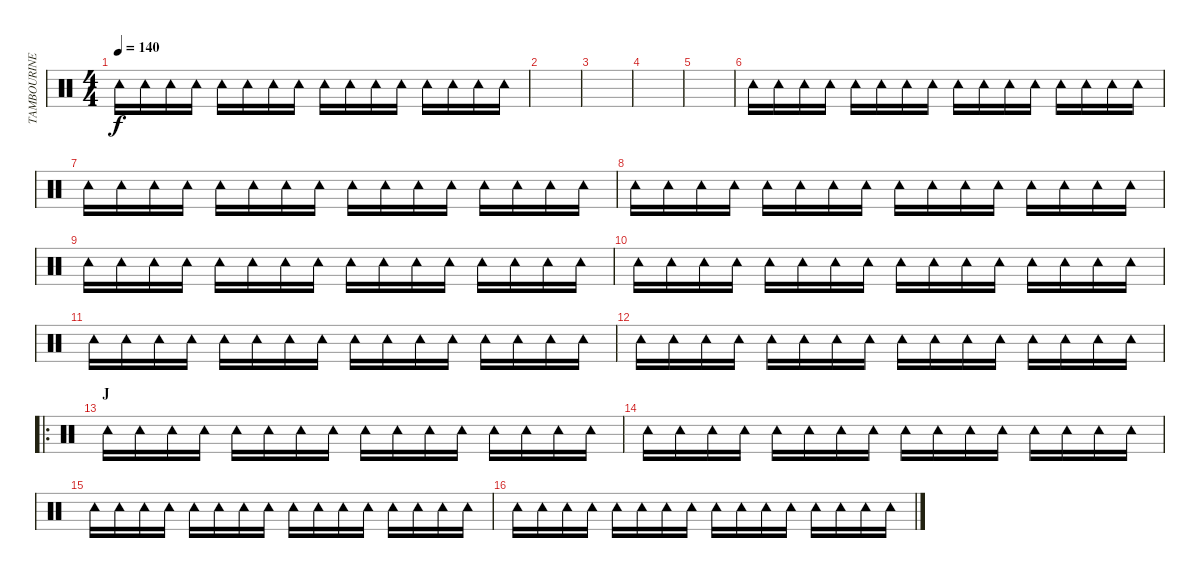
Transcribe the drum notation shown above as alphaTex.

\track ("TAMBOURINE" "TAMBOURINE") {instrument percussion}
\staff {score}
\articulation defaults
\ts (4 4)
\tempo 140
\clef neutral
\ks c "Tambourine (hit)".16{dy f} "Tambourine (hit)".16 "Tambourine (hit)".16 "Tambourine (hit)".16 "Tambourine (hit)".16 "Tambourine (hit)".16 "Tambourine (hit)".16 "Tambourine (hit)".16 "Tambourine (hit)".16 "Tambourine (hit)".16 "Tambourine (hit)".16 "Tambourine (hit)".16 "Tambourine (hit)".16 "Tambourine (hit)".16 "Tambourine (hit)".16 "Tambourine (hit)".16
|
|
|
|
|
"Tambourine (hit)".16 "Tambourine (hit)".16 "Tambourine (hit)".16 "Tambourine (hit)".16 "Tambourine (hit)".16 "Tambourine (hit)".16 "Tambourine (hit)".16 "Tambourine (hit)".16 "Tambourine (hit)".16 "Tambourine (hit)".16 "Tambourine (hit)".16 "Tambourine (hit)".16 "Tambourine (hit)".16 "Tambourine (hit)".16 "Tambourine (hit)".16 "Tambourine (hit)".16 |
"Tambourine (hit)".16 "Tambourine (hit)".16 "Tambourine (hit)".16 "Tambourine (hit)".16 "Tambourine (hit)".16 "Tambourine (hit)".16 "Tambourine (hit)".16 "Tambourine (hit)".16 "Tambourine (hit)".16 "Tambourine (hit)".16 "Tambourine (hit)".16 "Tambourine (hit)".16 "Tambourine (hit)".16 "Tambourine (hit)".16 "Tambourine (hit)".16 "Tambourine (hit)".16 |
"Tambourine (hit)".16 "Tambourine (hit)".16 "Tambourine (hit)".16 "Tambourine (hit)".16 "Tambourine (hit)".16 "Tambourine (hit)".16 "Tambourine (hit)".16 "Tambourine (hit)".16 "Tambourine (hit)".16 "Tambourine (hit)".16 "Tambourine (hit)".16 "Tambourine (hit)".16 "Tambourine (hit)".16 "Tambourine (hit)".16 "Tambourine (hit)".16 "Tambourine (hit)".16 |
"Tambourine (hit)".16 "Tambourine (hit)".16 "Tambourine (hit)".16 "Tambourine (hit)".16 "Tambourine (hit)".16 "Tambourine (hit)".16 "Tambourine (hit)".16 "Tambourine (hit)".16 "Tambourine (hit)".16 "Tambourine (hit)".16 "Tambourine (hit)".16 "Tambourine (hit)".16 "Tambourine (hit)".16 "Tambourine (hit)".16 "Tambourine (hit)".16 "Tambourine (hit)".16 |
"Tambourine (hit)".16 "Tambourine (hit)".16 "Tambourine (hit)".16 "Tambourine (hit)".16 "Tambourine (hit)".16 "Tambourine (hit)".16 "Tambourine (hit)".16 "Tambourine (hit)".16 "Tambourine (hit)".16 "Tambourine (hit)".16 "Tambourine (hit)".16 "Tambourine (hit)".16 "Tambourine (hit)".16 "Tambourine (hit)".16 "Tambourine (hit)".16 "Tambourine (hit)".16 |
"Tambourine (hit)".16 "Tambourine (hit)".16 "Tambourine (hit)".16 "Tambourine (hit)".16 "Tambourine (hit)".16 "Tambourine (hit)".16 "Tambourine (hit)".16 "Tambourine (hit)".16 "Tambourine (hit)".16 "Tambourine (hit)".16 "Tambourine (hit)".16 "Tambourine (hit)".16 "Tambourine (hit)".16 "Tambourine (hit)".16 "Tambourine (hit)".16 "Tambourine (hit)".16 |
"Tambourine (hit)".16 "Tambourine (hit)".16 "Tambourine (hit)".16 "Tambourine (hit)".16 "Tambourine (hit)".16 "Tambourine (hit)".16 "Tambourine (hit)".16 "Tambourine (hit)".16 "Tambourine (hit)".16 "Tambourine (hit)".16 "Tambourine (hit)".16 "Tambourine (hit)".16 "Tambourine (hit)".16 "Tambourine (hit)".16 "Tambourine (hit)".16 "Tambourine (hit)".16 |
\ro
\section ("" "J")
"Tambourine (hit)".16 "Tambourine (hit)".16 "Tambourine (hit)".16 "Tambourine (hit)".16 "Tambourine (hit)".16 "Tambourine (hit)".16 "Tambourine (hit)".16 "Tambourine (hit)".16 "Tambourine (hit)".16 "Tambourine (hit)".16 "Tambourine (hit)".16 "Tambourine (hit)".16 "Tambourine (hit)".16 "Tambourine (hit)".16 "Tambourine (hit)".16 "Tambourine (hit)".16 |
"Tambourine (hit)".16 "Tambourine (hit)".16 "Tambourine (hit)".16 "Tambourine (hit)".16 "Tambourine (hit)".16 "Tambourine (hit)".16 "Tambourine (hit)".16 "Tambourine (hit)".16 "Tambourine (hit)".16 "Tambourine (hit)".16 "Tambourine (hit)".16 "Tambourine (hit)".16 "Tambourine (hit)".16 "Tambourine (hit)".16 "Tambourine (hit)".16 "Tambourine (hit)".16 |
"Tambourine (hit)".16 "Tambourine (hit)".16 "Tambourine (hit)".16 "Tambourine (hit)".16 "Tambourine (hit)".16 "Tambourine (hit)".16 "Tambourine (hit)".16 "Tambourine (hit)".16 "Tambourine (hit)".16 "Tambourine (hit)".16 "Tambourine (hit)".16 "Tambourine (hit)".16 "Tambourine (hit)".16 "Tambourine (hit)".16 "Tambourine (hit)".16 "Tambourine (hit)".16 |
"Tambourine (hit)".16 "Tambourine (hit)".16 "Tambourine (hit)".16 "Tambourine (hit)".16 "Tambourine (hit)".16 "Tambourine (hit)".16 "Tambourine (hit)".16 "Tambourine (hit)".16 "Tambourine (hit)".16 "Tambourine (hit)".16 "Tambourine (hit)".16 "Tambourine (hit)".16 "Tambourine (hit)".16 "Tambourine (hit)".16 "Tambourine (hit)".16 "Tambourine (hit)".16
